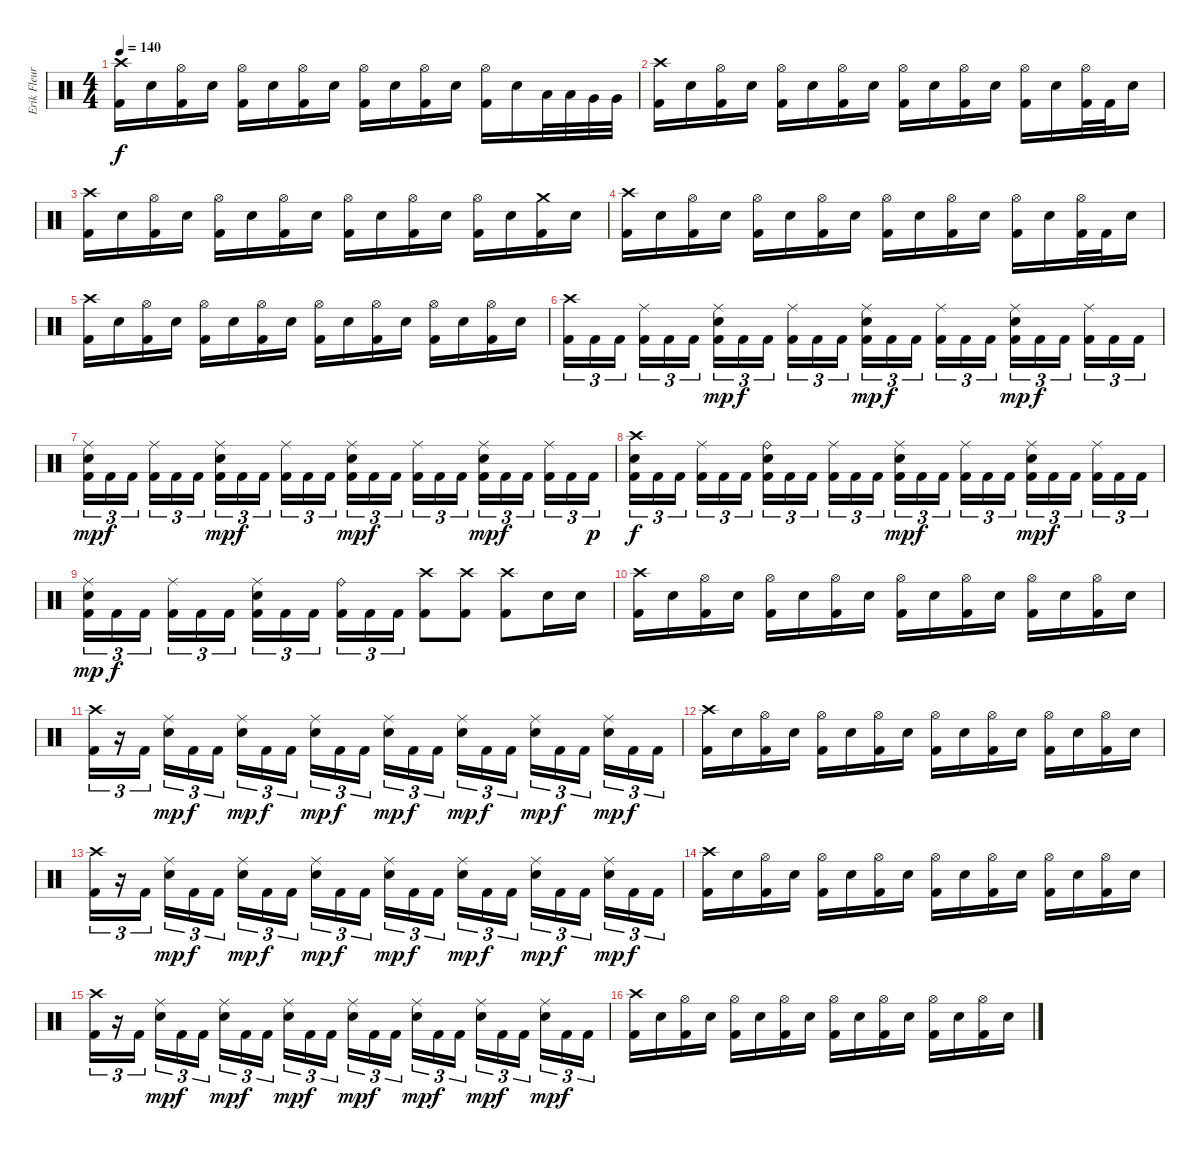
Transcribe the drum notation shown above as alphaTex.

\track ("Erik Fleuren" "Erik Fleur") {instrument percussion}
\staff {score}
\articulation defaults
\ts (4 4)
\tempo 140
\clef neutral
\ks c
("Crash high (hit)" "Kick (hit) 2").16{dy f} "Electric Snare (hit)".16 ("Hi-Hat (open)" "Kick (hit) 2").16 "Electric Snare (hit)".16 ("Hi-Hat (open)" "Kick (hit) 2").16 "Electric Snare (hit)".16 ("Hi-Hat (open)" "Kick (hit) 2").16 "Electric Snare (hit)".16 ("Hi-Hat (open)" "Kick (hit) 2").16 "Electric Snare (hit)".16 ("Hi-Hat (open)" "Kick (hit) 2").16 "Electric Snare (hit)".16 ("Hi-Hat (open)" "Kick (hit) 2").16 "Electric Snare (hit)".16 "Low Tom (hit)".32 "Low Tom (hit)".32 "Very Low Tom (hit)".32 "Very Low Tom (hit)".32 |
("Crash high (hit)" "Kick (hit) 2").16 "Electric Snare (hit)".16 ("Hi-Hat (open)" "Kick (hit) 2").16 "Electric Snare (hit)".16 ("Hi-Hat (open)" "Kick (hit) 2").16 "Electric Snare (hit)".16 ("Hi-Hat (open)" "Kick (hit) 2").16 "Electric Snare (hit)".16 ("Hi-Hat (open)" "Kick (hit) 2").16 "Electric Snare (hit)".16 ("Hi-Hat (open)" "Kick (hit) 2").16 "Electric Snare (hit)".16 ("Hi-Hat (open)" "Kick (hit) 2").16 "Electric Snare (hit)".16 ("Hi-Hat (open)" "Kick (hit) 2").32 "Kick (hit) 2".32 "Electric Snare (hit)".16 |
("Crash high (hit)" "Kick (hit) 2").16 "Electric Snare (hit)".16 ("Hi-Hat (open)" "Kick (hit) 2").16 "Electric Snare (hit)".16 ("Hi-Hat (open)" "Kick (hit) 2").16 "Electric Snare (hit)".16 ("Hi-Hat (open)" "Kick (hit) 2").16 "Electric Snare (hit)".16 ("Hi-Hat (open)" "Kick (hit) 2").16 "Electric Snare (hit)".16 ("Hi-Hat (open)" "Kick (hit) 2").16 "Electric Snare (hit)".16 ("Hi-Hat (open)" "Kick (hit) 2").16 "Electric Snare (hit)".16 ("Crash medium (hit)" "Kick (hit) 2").16 "Electric Snare (hit)".16 |
("Crash high (hit)" "Kick (hit) 2").16 "Electric Snare (hit)".16 ("Hi-Hat (open)" "Kick (hit) 2").16 "Electric Snare (hit)".16 ("Hi-Hat (open)" "Kick (hit) 2").16 "Electric Snare (hit)".16 ("Hi-Hat (open)" "Kick (hit) 2").16 "Electric Snare (hit)".16 ("Hi-Hat (open)" "Kick (hit) 2").16 "Electric Snare (hit)".16 ("Hi-Hat (open)" "Kick (hit) 2").16 "Electric Snare (hit)".16 ("Hi-Hat (open)" "Kick (hit) 2").16 "Electric Snare (hit)".16 ("Hi-Hat (open)" "Kick (hit) 2").32 "Kick (hit) 2".32 "Electric Snare (hit)".16 |
("Crash high (hit)" "Kick (hit) 2").16 "Electric Snare (hit)".16 ("Hi-Hat (open)" "Kick (hit) 2").16 "Electric Snare (hit)".16 ("Hi-Hat (open)" "Kick (hit) 2").16 "Electric Snare (hit)".16 ("Hi-Hat (open)" "Kick (hit) 2").16 "Electric Snare (hit)".16 ("Hi-Hat (open)" "Kick (hit) 2").16 "Electric Snare (hit)".16 ("Hi-Hat (open)" "Kick (hit) 2").16 "Electric Snare (hit)".16 ("Hi-Hat (open)" "Kick (hit) 2").16 "Electric Snare (hit)".16 ("Hi-Hat (open)" "Kick (hit) 2").16 "Electric Snare (hit)".16 |
("Crash high (hit)" "Kick (hit) 2").16{tu (3 2)} "Kick (hit) 2".16{tu (3 2)} "Kick (hit) 2".16{tu (3 2) beam splitsecondary} ("Ride (middle)" "Kick (hit) 2").16{tu (3 2)} "Kick (hit) 2".16{tu (3 2)} "Kick (hit) 2".16{tu (3 2)} ("Ride (middle)" "Electric Snare (hit)" "Kick (hit) 2").16{tu (3 2) dy mp} "Kick (hit) 2".16{tu (3 2) dy f} "Kick (hit) 2".16{tu (3 2) beam splitsecondary} ("Ride (middle)" "Kick (hit) 2").16{tu (3 2)} "Kick (hit) 2".16{tu (3 2)} "Kick (hit) 2".16{tu (3 2)} ("Ride (middle)" "Electric Snare (hit)" "Kick (hit) 2").16{tu (3 2) dy mp} "Kick (hit) 2".16{tu (3 2) dy f} "Kick (hit) 2".16{tu (3 2) beam splitsecondary} ("Ride (middle)" "Kick (hit) 2").16{tu (3 2)} "Kick (hit) 2".16{tu (3 2)} "Kick (hit) 2".16{tu (3 2)} ("Ride (middle)" "Electric Snare (hit)" "Kick (hit) 2").16{tu (3 2) dy mp} "Kick (hit) 2".16{tu (3 2) dy f} "Kick (hit) 2".16{tu (3 2) beam splitsecondary} ("Ride (middle)" "Kick (hit) 2").16{tu (3 2)} "Kick (hit) 2".16{tu (3 2)} "Kick (hit) 2".16{tu (3 2)} |
("Ride (middle)" "Electric Snare (hit)" "Kick (hit) 2").16{tu (3 2) dy mp} "Kick (hit) 2".16{tu (3 2) dy f} "Kick (hit) 2".16{tu (3 2) beam splitsecondary} ("Ride (middle)" "Kick (hit) 2").16{tu (3 2)} "Kick (hit) 2".16{tu (3 2)} "Kick (hit) 2".16{tu (3 2)} ("Ride (middle)" "Electric Snare (hit)" "Kick (hit) 2").16{tu (3 2) dy mp} "Kick (hit) 2".16{tu (3 2) dy f} "Kick (hit) 2".16{tu (3 2) beam splitsecondary} ("Ride (middle)" "Kick (hit) 2").16{tu (3 2)} "Kick (hit) 2".16{tu (3 2)} "Kick (hit) 2".16{tu (3 2)} ("Ride (middle)" "Electric Snare (hit)" "Kick (hit) 2").16{tu (3 2) dy mp} "Kick (hit) 2".16{tu (3 2) dy f} "Kick (hit) 2".16{tu (3 2) beam splitsecondary} ("Ride (middle)" "Kick (hit) 2").16{tu (3 2)} "Kick (hit) 2".16{tu (3 2)} "Kick (hit) 2".16{tu (3 2)} ("Ride (middle)" "Electric Snare (hit)" "Kick (hit) 2").16{tu (3 2) dy mp} "Kick (hit) 2".16{tu (3 2) dy f} "Kick (hit) 2".16{tu (3 2) beam splitsecondary} ("Ride (middle)" "Kick (hit) 2").16{tu (3 2)} "Kick (hit) 2".16{tu (3 2)} "Kick (hit) 2".16{tu (3 2) dy p} |
("Crash high (hit)" "Electric Snare (hit)" "Kick (hit) 2").16{tu (3 2) dy f} "Kick (hit) 2".16{tu (3 2)} "Kick (hit) 2".16{tu (3 2) beam splitsecondary} ("Ride (middle)" "Kick (hit) 2").16{tu (3 2)} "Kick (hit) 2".16{tu (3 2)} "Kick (hit) 2".16{tu (3 2)} ("Ride (bell)" "Electric Snare (hit)" "Kick (hit) 2").16{tu (3 2)} "Kick (hit) 2".16{tu (3 2)} "Kick (hit) 2".16{tu (3 2) beam splitsecondary} ("Ride (middle)" "Kick (hit) 2").16{tu (3 2)} "Kick (hit) 2".16{tu (3 2)} "Kick (hit) 2".16{tu (3 2)} ("Ride (middle)" "Electric Snare (hit)" "Kick (hit) 2").16{tu (3 2) dy mp} "Kick (hit) 2".16{tu (3 2) dy f} "Kick (hit) 2".16{tu (3 2) beam splitsecondary} ("Ride (middle)" "Kick (hit) 2").16{tu (3 2)} "Kick (hit) 2".16{tu (3 2)} "Kick (hit) 2".16{tu (3 2)} ("Ride (middle)" "Electric Snare (hit)" "Kick (hit) 2").16{tu (3 2) dy mp} "Kick (hit) 2".16{tu (3 2) dy f} "Kick (hit) 2".16{tu (3 2) beam splitsecondary} ("Ride (middle)" "Kick (hit) 2").16{tu (3 2)} "Kick (hit) 2".16{tu (3 2)} "Kick (hit) 2".16{tu (3 2)} |
("Ride (middle)" "Electric Snare (hit)" "Kick (hit) 2").16{tu (3 2) dy mp} "Kick (hit) 2".16{tu (3 2) dy f} "Kick (hit) 2".16{tu (3 2) beam splitsecondary} ("Ride (middle)" "Kick (hit) 2").16{tu (3 2)} "Kick (hit) 2".16{tu (3 2)} "Kick (hit) 2".16{tu (3 2)} ("Ride (middle)" "Electric Snare (hit)" "Kick (hit) 2").16{tu (3 2)} "Kick (hit) 2".16{tu (3 2)} "Kick (hit) 2".16{tu (3 2) beam splitsecondary} ("Ride (bell)" "Kick (hit) 2").16{tu (3 2)} "Kick (hit) 2".16{tu (3 2)} "Kick (hit) 2".16{tu (3 2)} ("Crash high (hit)" "Kick (hit) 2").8 ("Crash high (hit)" "Kick (hit) 2").8 ("Crash high (hit)" "Kick (hit) 2").8 "Electric Snare (hit)".16 "Electric Snare (hit)".16 |
("Crash high (hit)" "Kick (hit) 2").16 "Electric Snare (hit)".16 ("Hi-Hat (open)" "Kick (hit) 2").16 "Electric Snare (hit)".16 ("Hi-Hat (open)" "Kick (hit) 2").16 "Electric Snare (hit)".16 ("Hi-Hat (open)" "Kick (hit) 2").16 "Electric Snare (hit)".16 ("Hi-Hat (open)" "Kick (hit) 2").16 "Electric Snare (hit)".16 ("Hi-Hat (open)" "Kick (hit) 2").16 "Electric Snare (hit)".16 ("Hi-Hat (open)" "Kick (hit) 2").16 "Electric Snare (hit)".16 ("Hi-Hat (open)" "Kick (hit) 2").16 "Electric Snare (hit)".16 |
("Crash high (hit)" "Kick (hit) 2").16{tu (3 2)} r.16{tu (3 2)} "Kick (hit) 2".16{tu (3 2) beam splitsecondary} ("Ride (middle)" "Electric Snare (hit)").16{tu (3 2) dy mp} "Kick (hit) 2".16{tu (3 2) dy f} "Kick (hit) 2".16{tu (3 2)} ("Ride (middle)" "Electric Snare (hit)").16{tu (3 2) dy mp} "Kick (hit) 2".16{tu (3 2) dy f} "Kick (hit) 2".16{tu (3 2) beam splitsecondary} ("Ride (middle)" "Electric Snare (hit)").16{tu (3 2) dy mp} "Kick (hit) 2".16{tu (3 2) dy f} "Kick (hit) 2".16{tu (3 2)} ("Ride (middle)" "Electric Snare (hit)").16{tu (3 2) dy mp} "Kick (hit) 2".16{tu (3 2) dy f} "Kick (hit) 2".16{tu (3 2) beam splitsecondary} ("Ride (middle)" "Electric Snare (hit)").16{tu (3 2) dy mp} "Kick (hit) 2".16{tu (3 2) dy f} "Kick (hit) 2".16{tu (3 2)} ("Ride (middle)" "Electric Snare (hit)").16{tu (3 2) dy mp} "Kick (hit) 2".16{tu (3 2) dy f} "Kick (hit) 2".16{tu (3 2) beam splitsecondary} ("Ride (middle)" "Electric Snare (hit)").16{tu (3 2) dy mp} "Kick (hit) 2".16{tu (3 2) dy f} "Kick (hit) 2".16{tu (3 2)} |
("Crash high (hit)" "Kick (hit) 2").16 "Electric Snare (hit)".16 ("Hi-Hat (open)" "Kick (hit) 2").16 "Electric Snare (hit)".16 ("Hi-Hat (open)" "Kick (hit) 2").16 "Electric Snare (hit)".16 ("Hi-Hat (open)" "Kick (hit) 2").16 "Electric Snare (hit)".16 ("Hi-Hat (open)" "Kick (hit) 2").16 "Electric Snare (hit)".16 ("Hi-Hat (open)" "Kick (hit) 2").16 "Electric Snare (hit)".16 ("Hi-Hat (open)" "Kick (hit) 2").16 "Electric Snare (hit)".16 ("Hi-Hat (open)" "Kick (hit) 2").16 "Electric Snare (hit)".16 |
("Crash high (hit)" "Kick (hit) 2").16{tu (3 2)} r.16{tu (3 2)} "Kick (hit) 2".16{tu (3 2) beam splitsecondary} ("Ride (middle)" "Electric Snare (hit)").16{tu (3 2) dy mp} "Kick (hit) 2".16{tu (3 2) dy f} "Kick (hit) 2".16{tu (3 2)} ("Ride (middle)" "Electric Snare (hit)").16{tu (3 2) dy mp} "Kick (hit) 2".16{tu (3 2) dy f} "Kick (hit) 2".16{tu (3 2) beam splitsecondary} ("Ride (middle)" "Electric Snare (hit)").16{tu (3 2) dy mp} "Kick (hit) 2".16{tu (3 2) dy f} "Kick (hit) 2".16{tu (3 2)} ("Ride (middle)" "Electric Snare (hit)").16{tu (3 2) dy mp} "Kick (hit) 2".16{tu (3 2) dy f} "Kick (hit) 2".16{tu (3 2) beam splitsecondary} ("Ride (middle)" "Electric Snare (hit)").16{tu (3 2) dy mp} "Kick (hit) 2".16{tu (3 2) dy f} "Kick (hit) 2".16{tu (3 2)} ("Ride (middle)" "Electric Snare (hit)").16{tu (3 2) dy mp} "Kick (hit) 2".16{tu (3 2) dy f} "Kick (hit) 2".16{tu (3 2) beam splitsecondary} ("Ride (middle)" "Electric Snare (hit)").16{tu (3 2) dy mp} "Kick (hit) 2".16{tu (3 2) dy f} "Kick (hit) 2".16{tu (3 2)} |
("Crash high (hit)" "Kick (hit) 2").16 "Electric Snare (hit)".16 ("Hi-Hat (open)" "Kick (hit) 2").16 "Electric Snare (hit)".16 ("Hi-Hat (open)" "Kick (hit) 2").16 "Electric Snare (hit)".16 ("Hi-Hat (open)" "Kick (hit) 2").16 "Electric Snare (hit)".16 ("Hi-Hat (open)" "Kick (hit) 2").16 "Electric Snare (hit)".16 ("Hi-Hat (open)" "Kick (hit) 2").16 "Electric Snare (hit)".16 ("Hi-Hat (open)" "Kick (hit) 2").16 "Electric Snare (hit)".16 ("Hi-Hat (open)" "Kick (hit) 2").16 "Electric Snare (hit)".16 |
("Crash high (hit)" "Kick (hit) 2").16{tu (3 2)} r.16{tu (3 2)} "Kick (hit) 2".16{tu (3 2) beam splitsecondary} ("Ride (middle)" "Electric Snare (hit)").16{tu (3 2) dy mp} "Kick (hit) 2".16{tu (3 2) dy f} "Kick (hit) 2".16{tu (3 2)} ("Ride (middle)" "Electric Snare (hit)").16{tu (3 2) dy mp} "Kick (hit) 2".16{tu (3 2) dy f} "Kick (hit) 2".16{tu (3 2) beam splitsecondary} ("Ride (middle)" "Electric Snare (hit)").16{tu (3 2) dy mp} "Kick (hit) 2".16{tu (3 2) dy f} "Kick (hit) 2".16{tu (3 2)} ("Ride (middle)" "Electric Snare (hit)").16{tu (3 2) dy mp} "Kick (hit) 2".16{tu (3 2) dy f} "Kick (hit) 2".16{tu (3 2) beam splitsecondary} ("Ride (middle)" "Electric Snare (hit)").16{tu (3 2) dy mp} "Kick (hit) 2".16{tu (3 2) dy f} "Kick (hit) 2".16{tu (3 2)} ("Ride (middle)" "Electric Snare (hit)").16{tu (3 2) dy mp} "Kick (hit) 2".16{tu (3 2) dy f} "Kick (hit) 2".16{tu (3 2) beam splitsecondary} ("Ride (middle)" "Electric Snare (hit)").16{tu (3 2) dy mp} "Kick (hit) 2".16{tu (3 2) dy f} "Kick (hit) 2".16{tu (3 2)} |
("Crash high (hit)" "Kick (hit) 2").16 "Electric Snare (hit)".16 ("Hi-Hat (open)" "Kick (hit) 2").16 "Electric Snare (hit)".16 ("Hi-Hat (open)" "Kick (hit) 2").16 "Electric Snare (hit)".16 ("Hi-Hat (open)" "Kick (hit) 2").16 "Electric Snare (hit)".16 ("Hi-Hat (open)" "Kick (hit) 2").16 "Electric Snare (hit)".16 ("Hi-Hat (open)" "Kick (hit) 2").16 "Electric Snare (hit)".16 ("Hi-Hat (open)" "Kick (hit) 2").16 "Electric Snare (hit)".16 ("Hi-Hat (open)" "Kick (hit) 2").16 "Electric Snare (hit)".16
